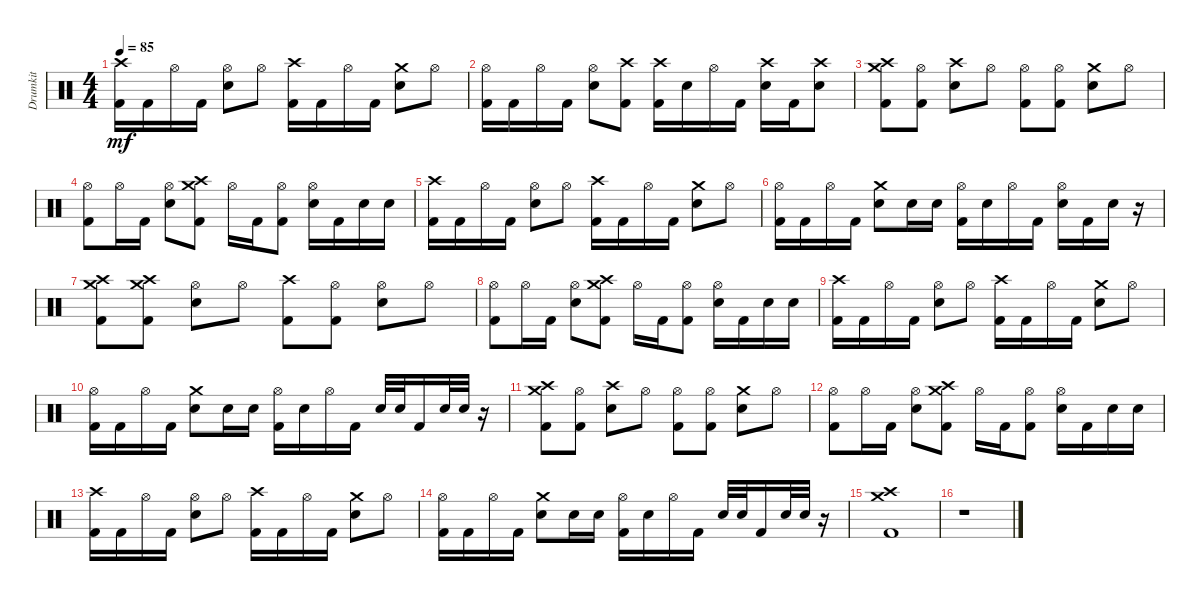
\track ("Drumkit" "Drumkit") {instrument percussion}
\staff {score}
\articulation defaults
\ts (4 4)
\tempo 85
\clef neutral
\ks c
("Crash high (hit)" "Kick (hit) 2").16{dy mf} "Kick (hit) 2".16 "Hi-Hat (open)".16 "Kick (hit) 2".16 ("Snare (hit) 2" "Hi-Hat (open)").8 "Hi-Hat (open)".8 ("Crash high (hit)" "Kick (hit) 2").16 "Kick (hit) 2".16 "Hi-Hat (open)".16 "Kick (hit) 2".16 ("Snare (hit) 2" "Crash medium (hit)").8 "Hi-Hat (open)".8 |
("Hi-Hat (open)" "Kick (hit) 2").16 "Kick (hit) 2".16 "Hi-Hat (open)".16 "Kick (hit) 2".16 ("Snare (hit) 2" "Hi-Hat (open)").8 ("Kick (hit) 2" "Crash high (hit)").8 ("Kick (hit) 2" "Crash high (hit)").16 "Snare (hit) 2".16 "Hi-Hat (open)".16 "Kick (hit) 2".16 ("Snare (hit) 2" "Crash high (hit)").16 "Kick (hit) 2".16 ("Snare (hit) 2" "Crash high (hit)").8 |
("Kick (hit) 2" "Crash high (hit)" "Crash medium (hit)").8 ("Kick (hit) 2" "Hi-Hat (open)").8 ("Snare (hit) 2" "Crash high (hit)").8 "Hi-Hat (open)".8 ("Kick (hit) 2" "Hi-Hat (open)").8 ("Kick (hit) 2" "Hi-Hat (open)").8 ("Snare (hit) 2" "Crash medium (hit)").8 "Hi-Hat (open)".8 |
("Kick (hit) 2" "Hi-Hat (open)").8 "Hi-Hat (open)".16 "Kick (hit) 2".16 ("Snare (hit) 2" "Hi-Hat (open)").8 ("Kick (hit) 2" "Crash high (hit)" "Crash medium (hit)").8 "Hi-Hat (open)".16 "Kick (hit) 2".16 ("Kick (hit) 2" "Hi-Hat (open)").8 ("Snare (hit) 2" "Hi-Hat (open)").16 "Kick (hit) 2".16 "Snare (hit) 2".16 "Snare (hit) 2".16 |
("Crash high (hit)" "Kick (hit) 2").16 "Kick (hit) 2".16 "Hi-Hat (open)".16 "Kick (hit) 2".16 ("Snare (hit) 2" "Hi-Hat (open)").8 "Hi-Hat (open)".8 ("Crash high (hit)" "Kick (hit) 2").16 "Kick (hit) 2".16 "Hi-Hat (open)".16 "Kick (hit) 2".16 ("Snare (hit) 2" "Crash medium (hit)").8 "Hi-Hat (open)".8 |
("Hi-Hat (open)" "Kick (hit) 2").16 "Kick (hit) 2".16 "Hi-Hat (open)".16 "Kick (hit) 2".16 ("Snare (hit) 2" "Crash medium (hit)").8 "Snare (hit) 2".16 "Snare (hit) 2".16 ("Kick (hit) 2" "Hi-Hat (open)").16 "Snare (hit) 2".16 "Hi-Hat (open)".16 "Kick (hit) 2".16 ("Snare (hit) 2" "Hi-Hat (open)").16 "Kick (hit) 2".16 "Snare (hit) 2".16 r.16 |
("Kick (hit) 2" "Crash high (hit)" "Crash medium (hit)").8 ("Kick (hit) 2" "Crash high (hit)" "Crash medium (hit)").8 ("Snare (hit) 2" "Hi-Hat (open)").8 "Hi-Hat (open)".8 ("Kick (hit) 2" "Crash high (hit)").8 ("Kick (hit) 2" "Hi-Hat (open)").8 ("Snare (hit) 2" "Hi-Hat (open)").8 "Hi-Hat (open)".8 |
("Kick (hit) 2" "Hi-Hat (open)").8 "Hi-Hat (open)".16 "Kick (hit) 2".16 ("Snare (hit) 2" "Hi-Hat (open)").8 ("Kick (hit) 2" "Crash high (hit)" "Crash medium (hit)").8 "Hi-Hat (open)".16 "Kick (hit) 2".16 ("Kick (hit) 2" "Hi-Hat (open)").8 ("Snare (hit) 2" "Hi-Hat (open)").16 "Kick (hit) 2".16 "Snare (hit) 2".16 "Snare (hit) 2".16 |
("Crash high (hit)" "Kick (hit) 2").16 "Kick (hit) 2".16 "Hi-Hat (open)".16 "Kick (hit) 2".16 ("Snare (hit) 2" "Hi-Hat (open)").8 "Hi-Hat (open)".8 ("Crash high (hit)" "Kick (hit) 2").16 "Kick (hit) 2".16 "Hi-Hat (open)".16 "Kick (hit) 2".16 ("Snare (hit) 2" "Crash medium (hit)").8 "Hi-Hat (open)".8 |
("Hi-Hat (open)" "Kick (hit) 2").16 "Kick (hit) 2".16 "Hi-Hat (open)".16 "Kick (hit) 2".16 ("Snare (hit) 2" "Crash medium (hit)").8 "Snare (hit) 2".16 "Snare (hit) 2".16 ("Kick (hit) 2" "Hi-Hat (open)").16 "Snare (hit) 2".16 "Hi-Hat (open)".16 "Kick (hit) 2".16 "Snare (hit) 2".32 "Snare (hit) 2".32 "Kick (hit) 2".16 "Snare (hit) 2".32 "Snare (hit) 2".32 r.16 |
("Kick (hit) 2" "Crash high (hit)" "Crash medium (hit)").8 ("Kick (hit) 2" "Hi-Hat (open)").8 ("Snare (hit) 2" "Crash high (hit)").8 "Hi-Hat (open)".8 ("Kick (hit) 2" "Hi-Hat (open)").8 ("Kick (hit) 2" "Hi-Hat (open)").8 ("Snare (hit) 2" "Crash medium (hit)").8 "Hi-Hat (open)".8 |
("Kick (hit) 2" "Hi-Hat (open)").8 "Hi-Hat (open)".16 "Kick (hit) 2".16 ("Snare (hit) 2" "Hi-Hat (open)").8 ("Kick (hit) 2" "Crash high (hit)" "Crash medium (hit)").8 "Hi-Hat (open)".16 "Kick (hit) 2".16 ("Kick (hit) 2" "Hi-Hat (open)").8 ("Snare (hit) 2" "Hi-Hat (open)").16 "Kick (hit) 2".16 "Snare (hit) 2".16 "Snare (hit) 2".16 |
("Crash high (hit)" "Kick (hit) 2").16 "Kick (hit) 2".16 "Hi-Hat (open)".16 "Kick (hit) 2".16 ("Snare (hit) 2" "Hi-Hat (open)").8 "Hi-Hat (open)".8 ("Crash high (hit)" "Kick (hit) 2").16 "Kick (hit) 2".16 "Hi-Hat (open)".16 "Kick (hit) 2".16 ("Snare (hit) 2" "Crash medium (hit)").8 "Hi-Hat (open)".8 |
("Hi-Hat (open)" "Kick (hit) 2").16 "Kick (hit) 2".16 "Hi-Hat (open)".16 "Kick (hit) 2".16 ("Snare (hit) 2" "Crash medium (hit)").8 "Snare (hit) 2".16 "Snare (hit) 2".16 ("Kick (hit) 2" "Hi-Hat (open)").16 "Snare (hit) 2".16 "Hi-Hat (open)".16 "Kick (hit) 2".16 "Snare (hit) 2".32 "Snare (hit) 2".32 "Kick (hit) 2".16 "Snare (hit) 2".32 "Snare (hit) 2".32 r.16 |
("Kick (hit) 2" "Crash medium (hit)" "Crash high (hit)").1 |
r.1
